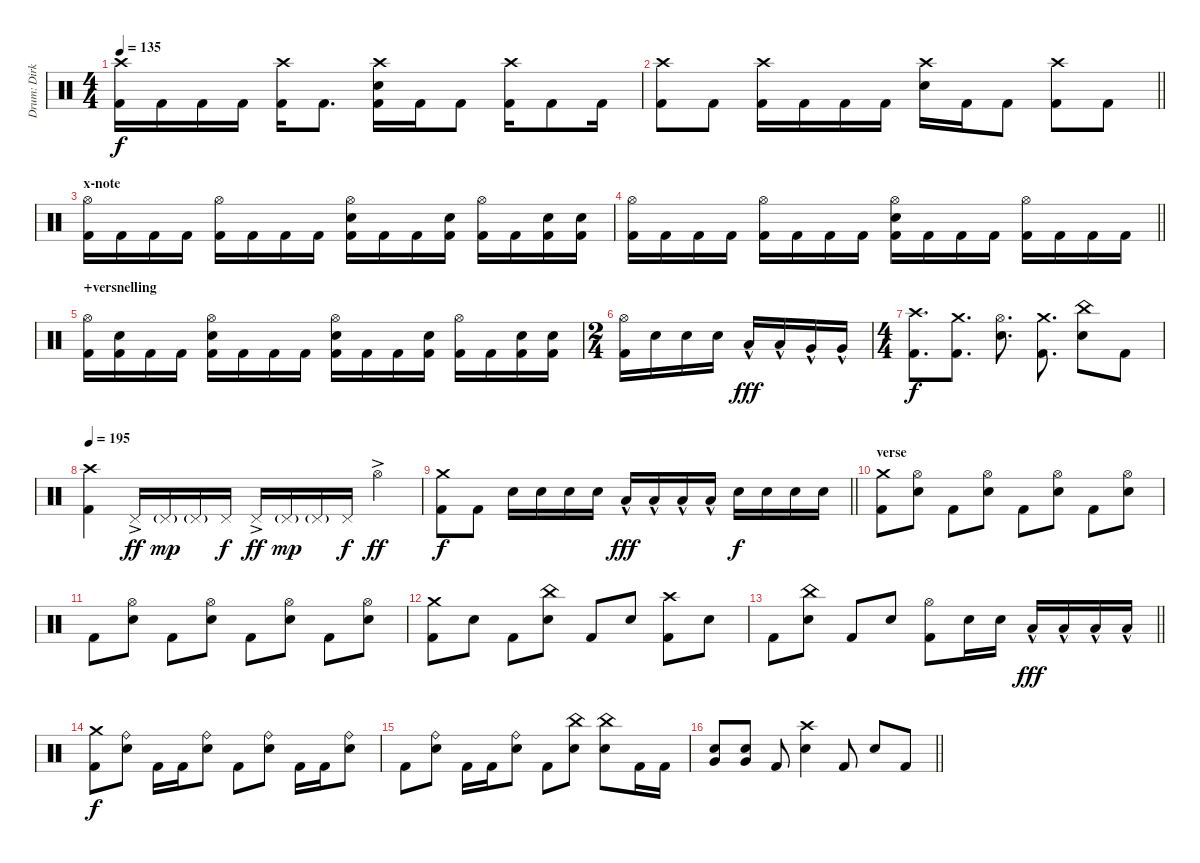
\track ("Drum: Dirk" "Drum: Dirk") {instrument percussion}
\staff {score}
\articulation defaults
\ts (4 4)
\tempo 135
\clef neutral
\ks c
("Crash high (hit)" "Kick (hit) 2").16{dy f} "Kick (hit) 2".16 "Kick (hit) 2".16 "Kick (hit) 2".16 ("Crash high (hit)" "Kick (hit) 2").16 "Kick (hit) 2".8{d} ("Crash high (hit)" "Electric Snare (hit)" "Kick (hit) 2").16 "Kick (hit) 2".16 "Kick (hit) 2".8 ("Crash high (hit)" "Kick (hit) 2").16 "Kick (hit) 2".8 "Kick (hit) 2".16 |
\barLineRight lightlight
("Crash high (hit)" "Kick (hit) 2").8 "Kick (hit) 2".8 ("Crash high (hit)" "Kick (hit) 2").16 "Kick (hit) 2".16 "Kick (hit) 2".16 "Kick (hit) 2".16 ("Crash high (hit)" "Electric Snare (hit)").16 "Kick (hit) 2".16 "Kick (hit) 2".8 ("Crash high (hit)" "Kick (hit) 2").8 "Kick (hit) 2".8 |
\section ("" "x-note")
("Hi-Hat (open)" "Kick (hit) 2").16 "Kick (hit) 2".16 "Kick (hit) 2".16 "Kick (hit) 2".16 ("Hi-Hat (open)" "Kick (hit) 2").16 "Kick (hit) 2".16 "Kick (hit) 2".16 "Kick (hit) 2".16 ("Hi-Hat (open)" "Electric Snare (hit)" "Kick (hit) 2").16 "Kick (hit) 2".16 "Kick (hit) 2".16 ("Electric Snare (hit)" "Kick (hit) 2").16 ("Hi-Hat (open)" "Kick (hit) 2").16 "Kick (hit) 2".16 ("Electric Snare (hit)" "Kick (hit) 2").16 ("Electric Snare (hit)" "Kick (hit) 2").16 |
\barLineRight lightlight
("Hi-Hat (open)" "Kick (hit) 2").16 "Kick (hit) 2".16 "Kick (hit) 2".16 "Kick (hit) 2".16 ("Hi-Hat (open)" "Kick (hit) 2").16 "Kick (hit) 2".16 "Kick (hit) 2".16 "Kick (hit) 2".16 ("Hi-Hat (open)" "Electric Snare (hit)" "Kick (hit) 2").16 "Kick (hit) 2".16 "Kick (hit) 2".16 "Kick (hit) 2".16 ("Hi-Hat (open)" "Kick (hit) 2").16 "Kick (hit) 2".16 "Kick (hit) 2".16 "Kick (hit) 2".16 |
\section ("" "+versnelling")
("Hi-Hat (open)" "Kick (hit) 2").16 ("Electric Snare (hit)" "Kick (hit) 2").16 "Kick (hit) 2".16 "Kick (hit) 2".16 ("Hi-Hat (open)" "Electric Snare (hit)" "Kick (hit) 2").16 "Kick (hit) 2".16 "Kick (hit) 2".16 "Kick (hit) 2".16 ("Hi-Hat (open)" "Electric Snare (hit)" "Kick (hit) 2").16 "Kick (hit) 2".16 "Kick (hit) 2".16 ("Electric Snare (hit)" "Kick (hit) 2").16 ("Hi-Hat (open)" "Kick (hit) 2").16 "Kick (hit) 2".16 ("Electric Snare (hit)" "Kick (hit) 2").16 ("Electric Snare (hit)" "Kick (hit) 2").16 |
\ts (2 4)
("Hi-Hat (open)" "Kick (hit) 2").16 "Electric Snare (hit)".16 "Electric Snare (hit)".16 "Electric Snare (hit)".16 "Low Tom (hit)"{hac}.16{dy fff} "Low Tom (hit)"{hac}.16 "Very Low Tom (hit)"{hac}.16 "Very Low Tom (hit)"{hac}.16 |
\ts (4 4)
("Crash high (hit)" "Kick (hit) 2").8{d dy f} ("Crash medium (hit)" "Kick (hit) 2").8{d} ("Hi-Hat (open)" "Electric Snare (hit)").8{d} ("Crash medium (hit)" "Kick (hit) 2").8{d} ("China (hit)" "Electric Snare (hit)").8 "Kick (hit) 2".8 |
\tempo 195
("Crash high (hit)" "Kick (hit) 2").4 "Pedal Hi-Hat (hit)"{ac}.16{dy ff} "Pedal Hi-Hat (hit)"{g}.16{dy mp} "Pedal Hi-Hat (hit)"{g}.16 "Pedal Hi-Hat (hit)".16{dy f} "Pedal Hi-Hat (hit)"{ac}.16{dy ff} "Pedal Hi-Hat (hit)"{g}.16{dy mp} "Pedal Hi-Hat (hit)"{g}.16 "Pedal Hi-Hat (hit)".16{dy f} "Hi-Hat (open)"{ac}.4{dy ff} |
\barLineRight lightlight
("Crash medium (hit)" "Kick (hit) 2").8{dy f} "Kick (hit) 2".8 "Electric Snare (hit)".16 "Electric Snare (hit)".16 "Electric Snare (hit)".16 "Electric Snare (hit)".16 "Low Tom (hit)"{hac}.16{dy fff} "Low Tom (hit)"{hac}.16 "Low Tom (hit)"{hac}.16 "Low Tom (hit)"{hac}.16 "Electric Snare (hit)".16{dy f} "Electric Snare (hit)".16 "Electric Snare (hit)".16 "Electric Snare (hit)".16 |
\section ("" "verse")
("Crash medium (hit)" "Kick (hit) 2").8 ("Hi-Hat (open)" "Electric Snare (hit)").8 "Kick (hit) 2".8 ("Hi-Hat (open)" "Electric Snare (hit)").8 "Kick (hit) 2".8 ("Hi-Hat (open)" "Electric Snare (hit)").8 "Kick (hit) 2".8 ("Hi-Hat (open)" "Electric Snare (hit)").8 |
"Kick (hit) 2".8 ("Hi-Hat (open)" "Electric Snare (hit)").8 "Kick (hit) 2".8 ("Hi-Hat (open)" "Electric Snare (hit)").8 "Kick (hit) 2".8 ("Hi-Hat (open)" "Electric Snare (hit)").8 "Kick (hit) 2".8 ("Hi-Hat (open)" "Electric Snare (hit)").8 |
("Crash medium (hit)" "Kick (hit) 2").8 "Electric Snare (hit)".8 "Kick (hit) 2".8 ("China (hit)" "Electric Snare (hit)").8 "Kick (hit) 2".8 "Electric Snare (hit)".8 ("Crash high (hit)" "Kick (hit) 2").8 "Electric Snare (hit)".8 |
\barLineRight lightlight "Kick (hit) 2".8
("China (hit)" "Electric Snare (hit)").8 "Kick (hit) 2".8 "Electric Snare (hit)".8 ("Hi-Hat (open)" "Kick (hit) 2").8 "Electric Snare (hit)".16 "Electric Snare (hit)".16 "Low Tom (hit)"{hac}.16{dy fff} "Low Tom (hit)"{hac}.16 "Low Tom (hit)"{hac}.16 "Low Tom (hit)"{hac}.16 |
\section ("" "")
("Crash medium (hit)" "Kick (hit) 2").8{dy f} ("Ride (bell)" "Electric Snare (hit)").8 "Kick (hit) 2".16 "Kick (hit) 2".16 ("Ride (bell)" "Electric Snare (hit)").8 "Kick (hit) 2".8 ("Ride (bell)" "Electric Snare (hit)").8 "Kick (hit) 2".16 "Kick (hit) 2".16 ("Ride (bell)" "Electric Snare (hit)").8 |
"Kick (hit) 2".8 ("Ride (bell)" "Electric Snare (hit)").8 "Kick (hit) 2".16 "Kick (hit) 2".16 ("Ride (bell)" "Electric Snare (hit)").8 "Kick (hit) 2".8 ("China (hit)" "Electric Snare (hit)").8 ("China (hit)" "Electric Snare (hit)").8 "Kick (hit) 2".16 "Kick (hit) 2".16 |
\barLineRight lightlight
("Electric Snare (hit)" "Very Low Tom (hit)").8 ("Electric Snare (hit)" "Very Low Tom (hit)").8 "Kick (hit) 2".8 ("Crash high (hit)" "Electric Snare (hit)").4 "Kick (hit) 2".8 "Electric Snare (hit)".8 "Kick (hit) 2".8
